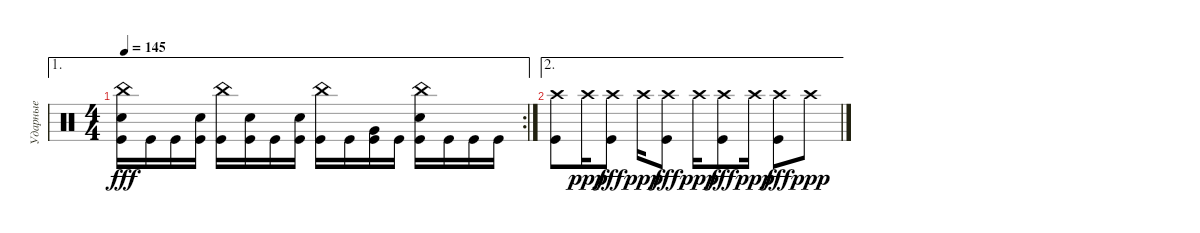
\track ("Ударные" "Ударные") {instrument percussion}
\staff {score}
\articulation defaults
\ae 1
\rc 2
\ts (4 4)
\tempo 145
\clef neutral
\ks c
("Kick (hit)" "Electric Snare (hit)" "China (hit)").16{dy fff} "Kick (hit)".16 "Kick (hit)".16 ("Kick (hit)" "Electric Snare (hit)").16 ("Kick (hit)" "China (hit)").16 ("Kick (hit)" "Electric Snare (hit)").16 "Kick (hit)".16 ("Kick (hit)" "Electric Snare (hit)").16 ("Kick (hit)" "China (hit)").16 "Kick (hit)".16 ("Kick (hit)" "Very Low Tom (hit)").16 "Kick (hit)".16 ("Kick (hit)" "Electric Snare (hit)" "China (hit)").16 "Kick (hit)".16 "Kick (hit)".16 "Kick (hit)".16 |
\ae 2
("Crash high (hit)" "Kick (hit)").8 "Crash high (hit)".16{dy ppp} ("Crash high (hit)" "Kick (hit)").8{dy fff} "Crash high (hit)".16{dy ppp} ("Crash high (hit)" "Kick (hit)").8{dy fff} "Crash high (hit)".16{dy ppp} ("Crash high (hit)" "Kick (hit)").8{dy fff} "Crash high (hit)".16{dy ppp} ("Crash high (hit)" "Kick (hit)").8{dy fff} "Crash high (hit)".8{dy ppp}
